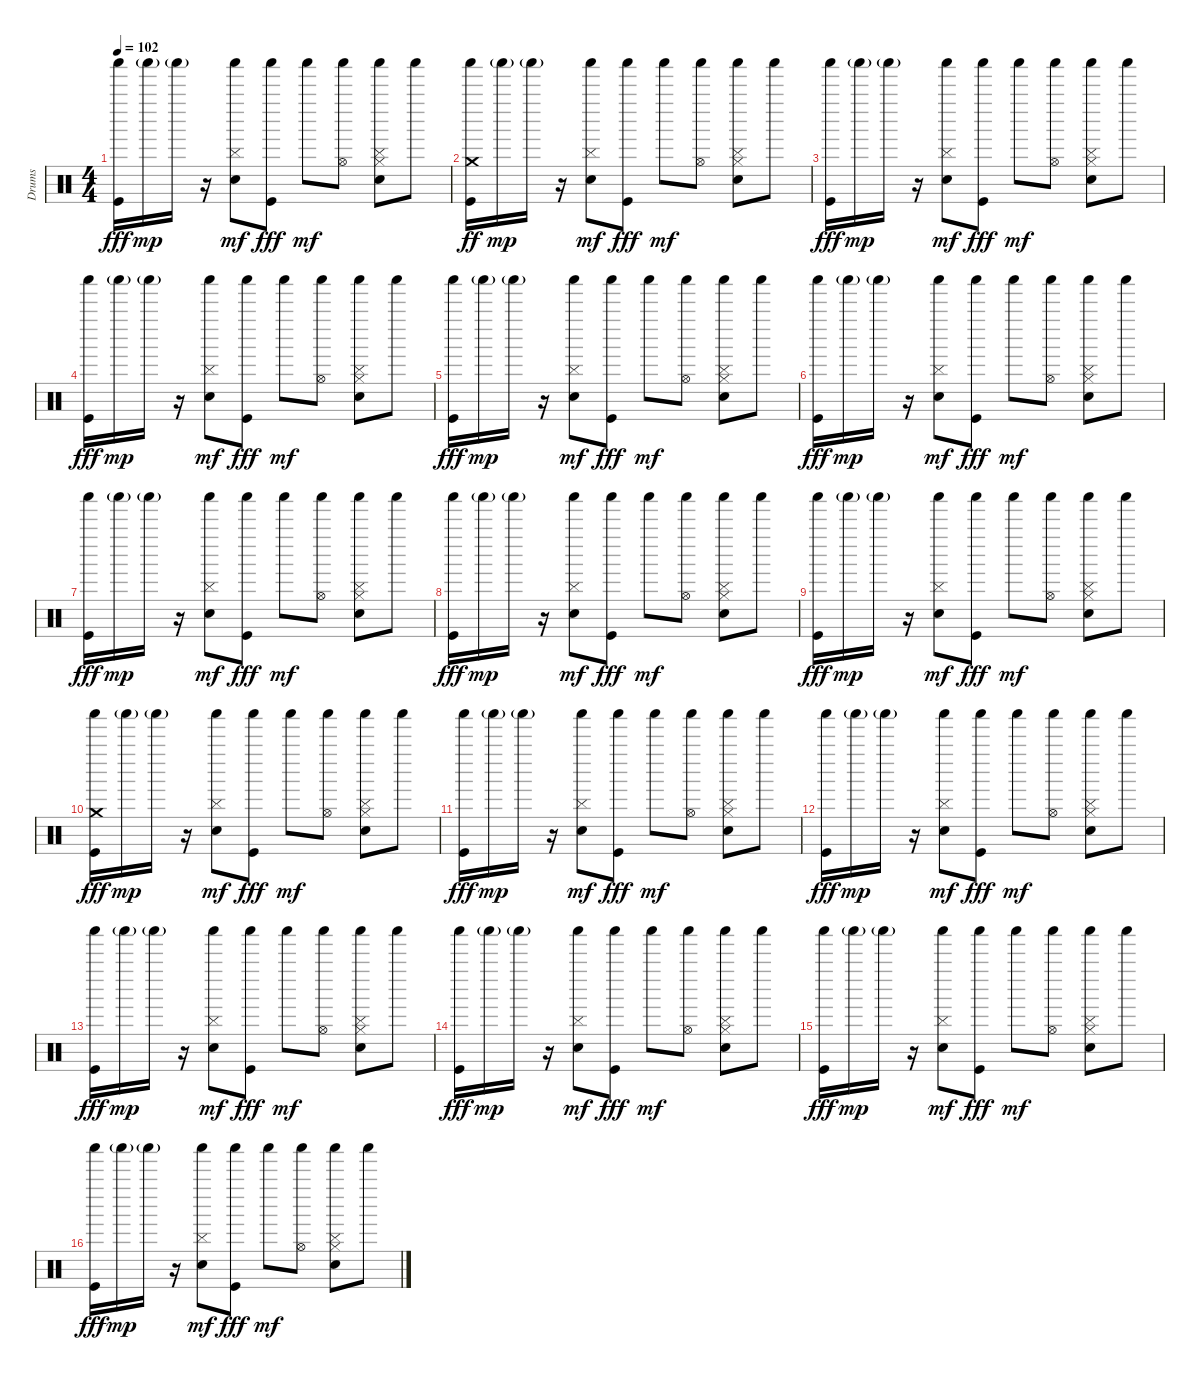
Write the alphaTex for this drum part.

\track ("Drums" "Drums") {instrument percussion}
\staff {score}
\articulation defaults
\ts (4 4)
\tempo 102
\clef neutral
\ks c
("Shaker (hit)" "Kick (hit)").16{dy fff} "Shaker (hit)"{g}.16{dy mp} "Shaker (hit)"{g}.16 r.16 ("Shaker (hit)" "Hand Clap (hit)" "Cymbal (hit)").8{dy mf} ("Shaker (hit)" "Kick (hit)").8{dy fff} "Shaker (hit)".8{dy mf} ("Shaker (hit)" "Hi-Hat (open)").8 ("Hi-Hat (closed)" "Hand Clap (hit)" "Cymbal (hit)" "Shaker (hit)").8 "Shaker (hit)".8 |
("Shaker (hit)" "Kick (hit)" "Crash medium (hit)").16{dy ff} "Shaker (hit)"{g}.16{dy mp} "Shaker (hit)"{g}.16 r.16 ("Shaker (hit)" "Hand Clap (hit)" "Cymbal (hit)").8{dy mf} ("Shaker (hit)" "Kick (hit)").8{dy fff} "Shaker (hit)".8{dy mf} ("Shaker (hit)" "Hi-Hat (open)").8 ("Hi-Hat (closed)" "Hand Clap (hit)" "Cymbal (hit)" "Shaker (hit)").8 "Shaker (hit)".8 |
("Shaker (hit)" "Kick (hit)").16{dy fff} "Shaker (hit)"{g}.16{dy mp} "Shaker (hit)"{g}.16 r.16 ("Shaker (hit)" "Hand Clap (hit)" "Cymbal (hit)").8{dy mf} ("Shaker (hit)" "Kick (hit)").8{dy fff} "Shaker (hit)".8{dy mf} ("Shaker (hit)" "Hi-Hat (open)").8 ("Hi-Hat (closed)" "Hand Clap (hit)" "Cymbal (hit)" "Shaker (hit)").8 "Shaker (hit)".8 |
("Shaker (hit)" "Kick (hit)").16{dy fff} "Shaker (hit)"{g}.16{dy mp} "Shaker (hit)"{g}.16 r.16 ("Shaker (hit)" "Hand Clap (hit)" "Cymbal (hit)").8{dy mf} ("Shaker (hit)" "Kick (hit)").8{dy fff} "Shaker (hit)".8{dy mf} ("Shaker (hit)" "Hi-Hat (open)").8 ("Hi-Hat (closed)" "Hand Clap (hit)" "Cymbal (hit)" "Shaker (hit)").8 "Shaker (hit)".8 |
("Shaker (hit)" "Kick (hit)").16{dy fff} "Shaker (hit)"{g}.16{dy mp} "Shaker (hit)"{g}.16 r.16 ("Shaker (hit)" "Hand Clap (hit)" "Cymbal (hit)").8{dy mf} ("Shaker (hit)" "Kick (hit)").8{dy fff} "Shaker (hit)".8{dy mf} ("Shaker (hit)" "Hi-Hat (open)").8 ("Hi-Hat (closed)" "Hand Clap (hit)" "Cymbal (hit)" "Shaker (hit)").8 "Shaker (hit)".8 |
("Shaker (hit)" "Kick (hit)").16{dy fff} "Shaker (hit)"{g}.16{dy mp} "Shaker (hit)"{g}.16 r.16 ("Shaker (hit)" "Hand Clap (hit)" "Cymbal (hit)").8{dy mf} ("Shaker (hit)" "Kick (hit)").8{dy fff} "Shaker (hit)".8{dy mf} ("Shaker (hit)" "Hi-Hat (open)").8 ("Hi-Hat (closed)" "Hand Clap (hit)" "Cymbal (hit)" "Shaker (hit)").8 "Shaker (hit)".8 |
("Shaker (hit)" "Kick (hit)").16{dy fff} "Shaker (hit)"{g}.16{dy mp} "Shaker (hit)"{g}.16 r.16 ("Shaker (hit)" "Hand Clap (hit)" "Cymbal (hit)").8{dy mf} ("Shaker (hit)" "Kick (hit)").8{dy fff} "Shaker (hit)".8{dy mf} ("Shaker (hit)" "Hi-Hat (open)").8 ("Hi-Hat (closed)" "Hand Clap (hit)" "Cymbal (hit)" "Shaker (hit)").8 "Shaker (hit)".8 |
("Shaker (hit)" "Kick (hit)").16{dy fff} "Shaker (hit)"{g}.16{dy mp} "Shaker (hit)"{g}.16 r.16 ("Shaker (hit)" "Hand Clap (hit)" "Cymbal (hit)").8{dy mf} ("Shaker (hit)" "Kick (hit)").8{dy fff} "Shaker (hit)".8{dy mf} ("Shaker (hit)" "Hi-Hat (open)").8 ("Hi-Hat (closed)" "Hand Clap (hit)" "Cymbal (hit)" "Shaker (hit)").8 "Shaker (hit)".8 |
("Shaker (hit)" "Kick (hit)").16{dy fff} "Shaker (hit)"{g}.16{dy mp} "Shaker (hit)"{g}.16 r.16 ("Shaker (hit)" "Hand Clap (hit)" "Cymbal (hit)").8{dy mf} ("Shaker (hit)" "Kick (hit)").8{dy fff} "Shaker (hit)".8{dy mf} ("Shaker (hit)" "Hi-Hat (open)").8 ("Hi-Hat (closed)" "Hand Clap (hit)" "Cymbal (hit)" "Shaker (hit)").8 "Shaker (hit)".8 |
("Shaker (hit)" "Crash medium (hit)" "Kick (hit)").16{dy fff} "Shaker (hit)"{g}.16{dy mp} "Shaker (hit)"{g}.16 r.16 ("Shaker (hit)" "Hand Clap (hit)" "Cymbal (hit)").8{dy mf} ("Shaker (hit)" "Kick (hit)").8{dy fff} "Shaker (hit)".8{dy mf} ("Shaker (hit)" "Hi-Hat (open)").8 ("Hi-Hat (closed)" "Hand Clap (hit)" "Cymbal (hit)" "Shaker (hit)").8 "Shaker (hit)".8 |
("Shaker (hit)" "Kick (hit)").16{dy fff} "Shaker (hit)"{g}.16{dy mp} "Shaker (hit)"{g}.16 r.16 ("Shaker (hit)" "Hand Clap (hit)" "Cymbal (hit)").8{dy mf} ("Shaker (hit)" "Kick (hit)").8{dy fff} "Shaker (hit)".8{dy mf} ("Shaker (hit)" "Hi-Hat (open)").8 ("Hi-Hat (closed)" "Hand Clap (hit)" "Cymbal (hit)" "Shaker (hit)").8 "Shaker (hit)".8 |
("Shaker (hit)" "Kick (hit)").16{dy fff} "Shaker (hit)"{g}.16{dy mp} "Shaker (hit)"{g}.16 r.16 ("Shaker (hit)" "Hand Clap (hit)" "Cymbal (hit)").8{dy mf} ("Shaker (hit)" "Kick (hit)").8{dy fff} "Shaker (hit)".8{dy mf} ("Shaker (hit)" "Hi-Hat (open)").8 ("Hi-Hat (closed)" "Hand Clap (hit)" "Cymbal (hit)" "Shaker (hit)").8 "Shaker (hit)".8 |
("Shaker (hit)" "Kick (hit)").16{dy fff} "Shaker (hit)"{g}.16{dy mp} "Shaker (hit)"{g}.16 r.16 ("Shaker (hit)" "Hand Clap (hit)" "Cymbal (hit)").8{dy mf} ("Shaker (hit)" "Kick (hit)").8{dy fff} "Shaker (hit)".8{dy mf} ("Shaker (hit)" "Hi-Hat (open)").8 ("Hi-Hat (closed)" "Hand Clap (hit)" "Cymbal (hit)" "Shaker (hit)").8 "Shaker (hit)".8 |
("Shaker (hit)" "Kick (hit)").16{dy fff} "Shaker (hit)"{g}.16{dy mp} "Shaker (hit)"{g}.16 r.16 ("Shaker (hit)" "Hand Clap (hit)" "Cymbal (hit)").8{dy mf} ("Shaker (hit)" "Kick (hit)").8{dy fff} "Shaker (hit)".8{dy mf} ("Shaker (hit)" "Hi-Hat (open)").8 ("Hi-Hat (closed)" "Hand Clap (hit)" "Cymbal (hit)" "Shaker (hit)").8 "Shaker (hit)".8 |
("Shaker (hit)" "Kick (hit)").16{dy fff} "Shaker (hit)"{g}.16{dy mp} "Shaker (hit)"{g}.16 r.16 ("Shaker (hit)" "Hand Clap (hit)" "Cymbal (hit)").8{dy mf} ("Shaker (hit)" "Kick (hit)").8{dy fff} "Shaker (hit)".8{dy mf} ("Shaker (hit)" "Hi-Hat (open)").8 ("Hi-Hat (closed)" "Hand Clap (hit)" "Cymbal (hit)" "Shaker (hit)").8 "Shaker (hit)".8 |
("Shaker (hit)" "Kick (hit)").16{dy fff} "Shaker (hit)"{g}.16{dy mp} "Shaker (hit)"{g}.16 r.16 ("Shaker (hit)" "Hand Clap (hit)" "Cymbal (hit)").8{dy mf} ("Shaker (hit)" "Kick (hit)").8{dy fff} "Shaker (hit)".8{dy mf} ("Shaker (hit)" "Hi-Hat (open)").8 ("Hi-Hat (closed)" "Hand Clap (hit)" "Cymbal (hit)" "Shaker (hit)").8 "Shaker (hit)".8
